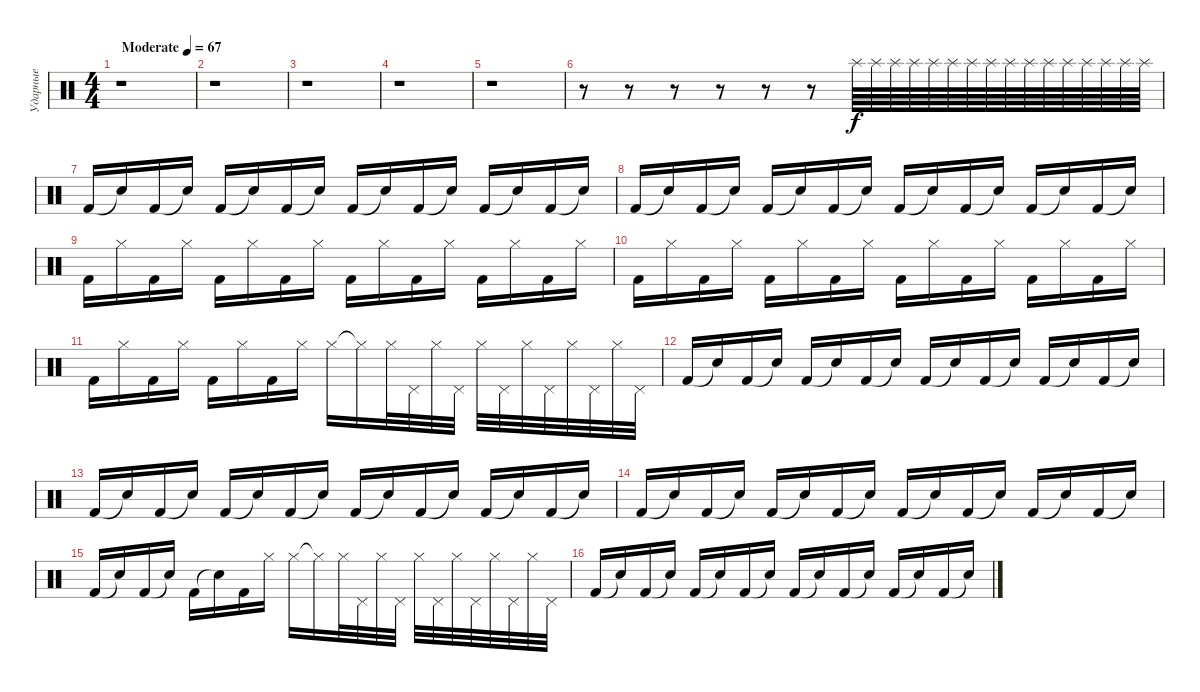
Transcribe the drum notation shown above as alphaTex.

\track ("Ударные" "Ударные") {instrument percussion}
\staff {score}
\articulation defaults
\ts (4 4)
\tempo (67 "Moderate")
\clef neutral
\ks c
r.1{dy f} |
r.1 |
r.1 |
r.1 |
r.1 |
r.8 r.8 r.8 r.8 r.8 r.8 "Splash (hit)".64{volume 2} "Splash (hit)".64{volume 4} "Splash (hit)".64{volume 5} "Splash (hit)".64{volume 6} "Splash (hit)".64{volume 7} "Splash (hit)".64{volume 8} "Splash (hit)".64{volume 9} "Splash (hit)".64{volume 10} "Splash (hit)".64{volume 11} "Splash (hit)".64{volume 12} "Splash (hit)".64{volume 13} "Splash (hit)".64{volume 14} "Splash (hit)".64 "Splash (hit)".64 "Splash (hit)".64 "Splash (hit)".64 |
"Kick (hit) 2".16{volume 14} "Snare (hit)"{t}.16 "Kick (hit) 2".16 "Snare (hit)"{t}.16 "Kick (hit) 2".16 "Snare (hit)"{t}.16 "Kick (hit) 2".16 "Snare (hit)"{t}.16 "Kick (hit) 2".16 "Snare (hit)"{t}.16 "Kick (hit) 2".16 "Snare (hit)"{t}.16 "Kick (hit) 2".16 "Snare (hit)"{t}.16 "Kick (hit) 2".16 "Snare (hit)"{t}.16 |
"Kick (hit) 2".16 "Snare (hit)"{t}.16 "Kick (hit) 2".16 "Snare (hit)"{t}.16 "Kick (hit) 2".16 "Snare (hit)"{t}.16 "Kick (hit) 2".16 "Snare (hit)"{t}.16 "Kick (hit) 2".16 "Snare (hit)"{t}.16 "Kick (hit) 2".16 "Snare (hit)"{t}.16 "Kick (hit) 2".16 "Snare (hit)"{t}.16 "Kick (hit) 2".16 "Snare (hit)"{t}.16 |
"Kick (hit) 2".16 "Hi-Hat (closed)".16 "Kick (hit) 2".16 "Hi-Hat (closed)".16 "Kick (hit) 2".16 "Hi-Hat (closed)".16 "Kick (hit) 2".16 "Hi-Hat (closed)".16 "Kick (hit) 2".16 "Hi-Hat (closed)".16 "Kick (hit) 2".16 "Hi-Hat (closed)".16 "Kick (hit) 2".16 "Hi-Hat (closed)".16 "Kick (hit) 2".16 "Hi-Hat (closed)".16 |
"Kick (hit) 2".16 "Hi-Hat (closed)".16 "Kick (hit) 2".16 "Hi-Hat (closed)".16 "Kick (hit) 2".16 "Hi-Hat (closed)".16 "Kick (hit) 2".16 "Hi-Hat (closed)".16 "Kick (hit) 2".16 "Hi-Hat (closed)".16 "Kick (hit) 2".16 "Hi-Hat (closed)".16 "Kick (hit) 2".16 "Hi-Hat (closed)".16 "Kick (hit) 2".16 "Hi-Hat (closed)".16 |
"Kick (hit) 2".16 "Hi-Hat (closed)".16 "Kick (hit) 2".16 "Hi-Hat (closed)".16 "Kick (hit) 2".16 "Hi-Hat (closed)".16 "Kick (hit) 2".16 "Hi-Hat (closed)".16 "Hi-Hat (closed)".16 "Hi-Hat (closed)"{t}.16 "Hi-Hat (closed)".32 "Pedal Hi-Hat (hit)".32 "Hi-Hat (closed)".32 "Pedal Hi-Hat (hit)".32 "Hi-Hat (closed)".32 "Pedal Hi-Hat (hit)".32 "Hi-Hat (closed)".32 "Pedal Hi-Hat (hit)".32 "Hi-Hat (closed)".32 "Pedal Hi-Hat (hit)".32 "Hi-Hat (closed)".32 "Pedal Hi-Hat (hit)".32 |
"Kick (hit) 2".16 "Snare (hit)"{t}.16 "Kick (hit) 2".16 "Snare (hit)"{t}.16 "Kick (hit) 2".16 "Snare (hit)"{t}.16 "Kick (hit) 2".16 "Snare (hit)"{t}.16 "Kick (hit) 2".16 "Snare (hit)"{t}.16 "Kick (hit) 2".16 "Snare (hit)"{t}.16 "Kick (hit) 2".16 "Snare (hit)"{t}.16 "Kick (hit) 2".16 "Snare (hit)"{t}.16 |
"Kick (hit) 2".16 "Snare (hit)"{t}.16 "Kick (hit) 2".16 "Snare (hit)"{t}.16 "Kick (hit) 2".16 "Snare (hit)"{t}.16 "Kick (hit) 2".16 "Snare (hit)"{t}.16 "Kick (hit) 2".16 "Snare (hit)"{t}.16 "Kick (hit) 2".16 "Snare (hit)"{t}.16 "Kick (hit) 2".16 "Snare (hit)"{t}.16 "Kick (hit) 2".16 "Snare (hit)"{t}.16 |
"Kick (hit) 2".16 "Snare (hit)"{t}.16 "Kick (hit) 2".16 "Snare (hit)"{t}.16 "Kick (hit) 2".16 "Snare (hit)"{t}.16 "Kick (hit) 2".16 "Snare (hit)"{t}.16 "Kick (hit) 2".16 "Snare (hit)"{t}.16 "Kick (hit) 2".16 "Snare (hit)"{t}.16 "Kick (hit) 2".16 "Snare (hit)"{t}.16 "Kick (hit) 2".16 "Snare (hit)"{t}.16 |
"Kick (hit) 2".16 "Snare (hit)"{t}.16 "Kick (hit) 2".16 "Snare (hit)"{t}.16 "Kick (hit) 2".16 "Snare (hit)"{t}.16 "Kick (hit) 2".16 "Hi-Hat (closed)".16 "Hi-Hat (closed)".16 "Hi-Hat (closed)"{t}.16 "Hi-Hat (closed)".32 "Pedal Hi-Hat (hit)".32 "Hi-Hat (closed)".32 "Pedal Hi-Hat (hit)".32 "Hi-Hat (closed)".32 "Pedal Hi-Hat (hit)".32 "Hi-Hat (closed)".32 "Pedal Hi-Hat (hit)".32 "Hi-Hat (closed)".32 "Pedal Hi-Hat (hit)".32 "Hi-Hat (closed)".32 "Pedal Hi-Hat (hit)".32 |
"Kick (hit) 2".16 "Snare (hit)"{t}.16 "Kick (hit) 2".16 "Snare (hit)"{t}.16 "Kick (hit) 2".16 "Snare (hit)"{t}.16 "Kick (hit) 2".16 "Snare (hit)"{t}.16 "Kick (hit) 2".16 "Snare (hit)"{t}.16 "Kick (hit) 2".16 "Snare (hit)"{t}.16 "Kick (hit) 2".16 "Snare (hit)"{t}.16 "Kick (hit) 2".16 "Snare (hit)"{t}.16
